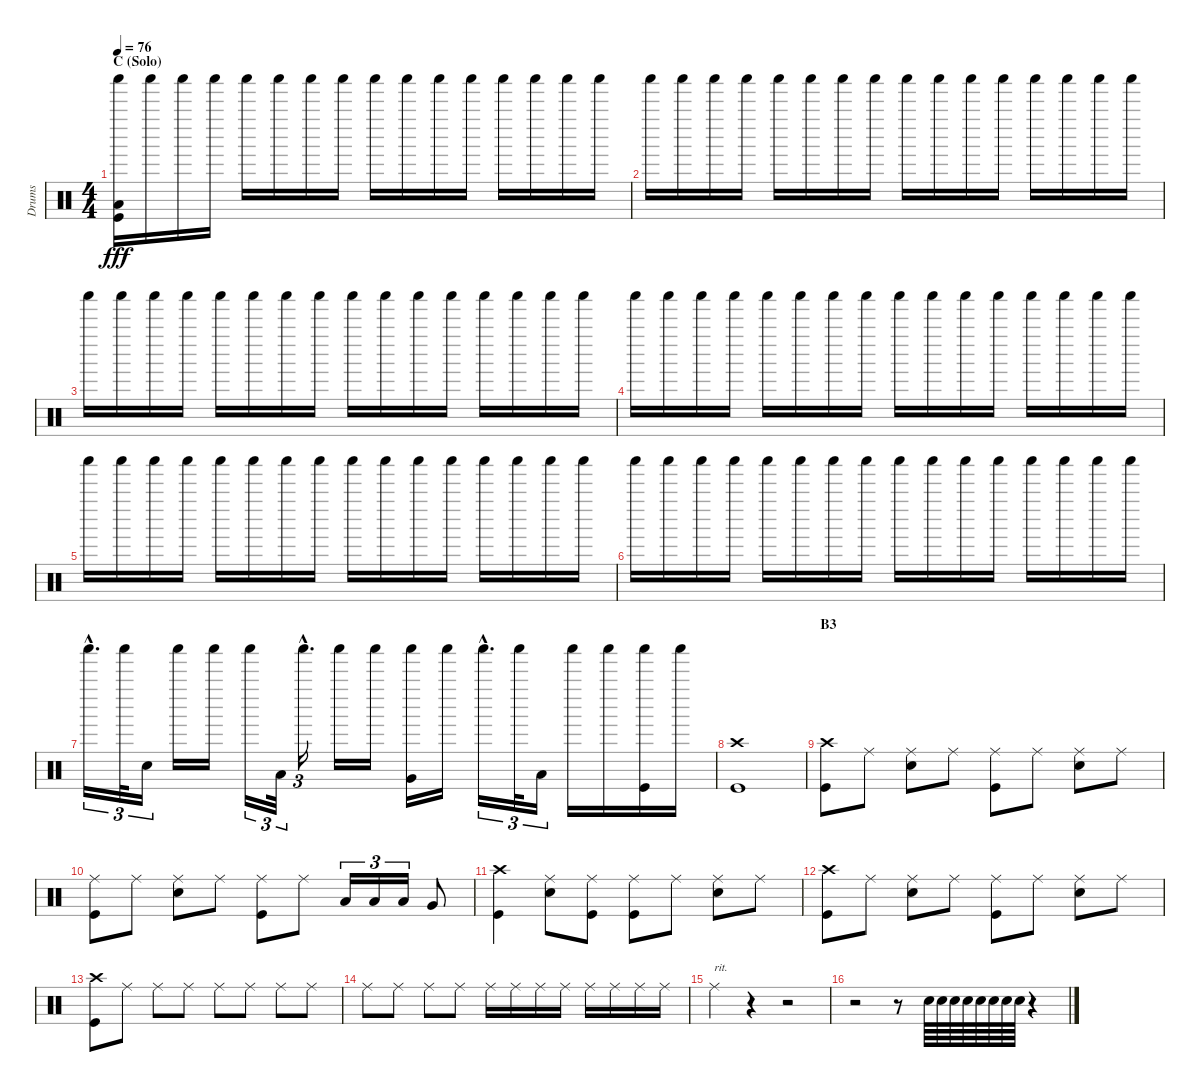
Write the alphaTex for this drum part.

\track ("Drums" "Drums") {instrument percussion}
\staff {score}
\articulation defaults
\ts (4 4)
\section ("" "C (Solo)")
\tempo 76
\clef neutral
\ks c
("Shaker (hit)" "Low Floor Tom (hit)" "Kick (hit)").16{dy fff} "Shaker (hit)".16 "Shaker (hit)".16 "Shaker (hit)".16 "Shaker (hit)".16 "Shaker (hit)".16 "Shaker (hit)".16 "Shaker (hit)".16 "Shaker (hit)".16 "Shaker (hit)".16 "Shaker (hit)".16 "Shaker (hit)".16 "Shaker (hit)".16 "Shaker (hit)".16 "Shaker (hit)".16 "Shaker (hit)".16 |
"Shaker (hit)".16 "Shaker (hit)".16 "Shaker (hit)".16 "Shaker (hit)".16 "Shaker (hit)".16 "Shaker (hit)".16 "Shaker (hit)".16 "Shaker (hit)".16 "Shaker (hit)".16 "Shaker (hit)".16 "Shaker (hit)".16 "Shaker (hit)".16 "Shaker (hit)".16 "Shaker (hit)".16 "Shaker (hit)".16 "Shaker (hit)".16 |
"Shaker (hit)".16 "Shaker (hit)".16 "Shaker (hit)".16 "Shaker (hit)".16 "Shaker (hit)".16 "Shaker (hit)".16 "Shaker (hit)".16 "Shaker (hit)".16 "Shaker (hit)".16 "Shaker (hit)".16 "Shaker (hit)".16 "Shaker (hit)".16 "Shaker (hit)".16 "Shaker (hit)".16 "Shaker (hit)".16 "Shaker (hit)".16 |
"Shaker (hit)".16 "Shaker (hit)".16 "Shaker (hit)".16 "Shaker (hit)".16 "Shaker (hit)".16 "Shaker (hit)".16 "Shaker (hit)".16 "Shaker (hit)".16 "Shaker (hit)".16 "Shaker (hit)".16 "Shaker (hit)".16 "Shaker (hit)".16 "Shaker (hit)".16 "Shaker (hit)".16 "Shaker (hit)".16 "Shaker (hit)".16 |
"Shaker (hit)".16 "Shaker (hit)".16 "Shaker (hit)".16 "Shaker (hit)".16 "Shaker (hit)".16 "Shaker (hit)".16 "Shaker (hit)".16 "Shaker (hit)".16 "Shaker (hit)".16 "Shaker (hit)".16 "Shaker (hit)".16 "Shaker (hit)".16 "Shaker (hit)".16 "Shaker (hit)".16 "Shaker (hit)".16 "Shaker (hit)".16 |
"Shaker (hit)".16 "Shaker (hit)".16 "Shaker (hit)".16 "Shaker (hit)".16 "Shaker (hit)".16 "Shaker (hit)".16 "Shaker (hit)".16 "Shaker (hit)".16 "Shaker (hit)".16 "Shaker (hit)".16 "Shaker (hit)".16 "Shaker (hit)".16 "Shaker (hit)".16 "Shaker (hit)".16 "Shaker (hit)".16 "Shaker (hit)".16 |
"Shaker (hit)"{hac}.16{d tu (3 2)} "Shaker (hit)".32{tu (3 2)} "Snare (hit) 2".16{tu (3 2)} "Shaker (hit)".16 "Shaker (hit)".16 "Shaker (hit)".16{tu (3 2)} "Low Tom (hit)".32{tu (3 2)} "Shaker (hit)"{hac}.16{d tu (3 2)} "Shaker (hit)".16 "Shaker (hit)".16 ("Shaker (hit)" "Very Low Tom (hit)").16 "Shaker (hit)".16 "Shaker (hit)"{hac}.16{d tu (3 2)} "Shaker (hit)".32{tu (3 2)} "Low Floor Tom (hit)".16{tu (3 2)} "Shaker (hit)".16 "Shaker (hit)".16 ("Shaker (hit)" "Kick (hit)").16 "Shaker (hit)".16 |
("Crash high (hit)" "Kick (hit)").1 |
\section ("" "B3")
("Crash high (hit)" "Kick (hit)").8 "Ride (middle)".8 ("Ride (middle)" "Snare (hit) 2").8 "Ride (middle)".8 ("Ride (middle)" "Kick (hit)").8 "Ride (middle)".8 ("Ride (middle)" "Snare (hit) 2").8 "Ride (middle)".8 |
("Ride (middle)" "Kick (hit)").8 "Ride (middle)".8 ("Ride (middle)" "Snare (hit) 2").8 "Ride (middle)".8 ("Ride (middle)" "Kick (hit)").8 "Ride (middle)".8 "Low Tom (hit)".16{tu (3 2)} "Low Tom (hit)".16{tu (3 2)} "Low Tom (hit)".16{tu (3 2)} "Very Low Tom (hit)".8 |
("Crash high (hit)" "Kick (hit)").4 ("Ride (middle)" "Snare (hit) 2").8 ("Ride (middle)" "Kick (hit)").8 ("Ride (middle)" "Kick (hit)").8 "Ride (middle)".8 ("Ride (middle)" "Snare (hit) 2").8 "Ride (middle)".8 |
("Crash high (hit)" "Kick (hit)").8 "Ride (middle)".8 ("Ride (middle)" "Snare (hit) 2").8 "Ride (middle)".8 ("Ride (middle)" "Kick (hit)").8 "Ride (middle)".8 ("Ride (middle)" "Snare (hit) 2").8 "Ride (middle)".8 |
("Crash high (hit)" "Kick (hit)").8 "Ride (middle)".8 "Ride (middle)".8 "Ride (middle)".8 "Ride (middle)".8 "Ride (middle)".8 "Ride (middle)".8 "Ride (middle)".8 |
"Ride (middle)".8 "Ride (middle)".8 "Ride (middle)".8 "Ride (middle)".8 "Ride (middle)".16 "Ride (middle)".16 "Ride (middle)".16 "Ride (middle)".16 "Ride (middle)".16 "Ride (middle)".16 "Ride (middle)".16 "Ride (middle)".16 |
"Ride (middle)".4{txt "rit."} r.4 r.2 |
r.2 r.8 "Snare (hit) 2".64 "Snare (hit) 2".64 "Snare (hit) 2".64 "Snare (hit) 2".64 "Snare (hit) 2".64 "Snare (hit) 2".64 "Snare (hit) 2".64 "Snare (hit) 2".64 r.4
